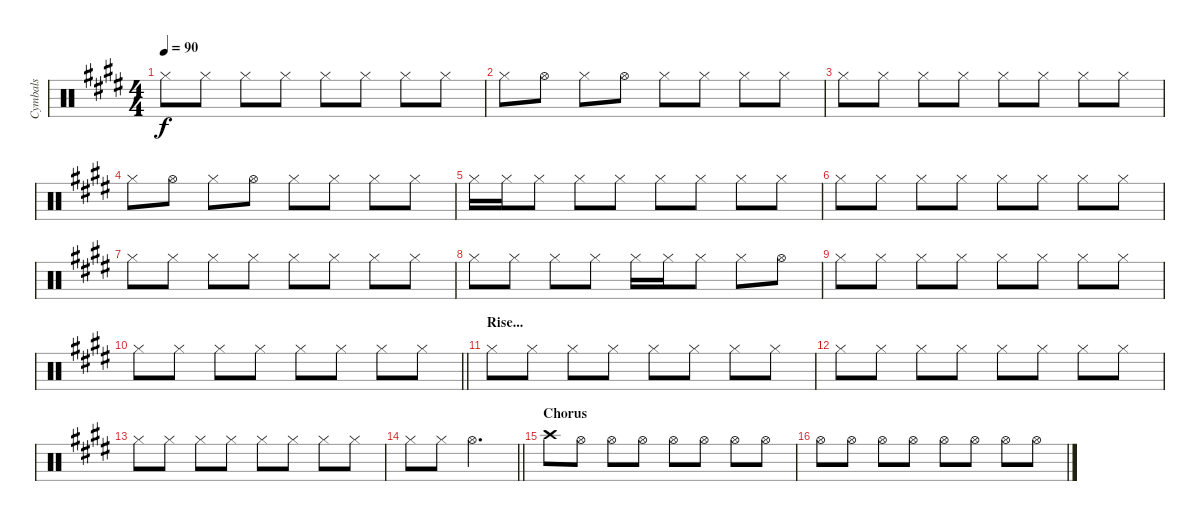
\track ("Cymbals" "Cymbals") {instrument percussion}
\staff {score}
\articulation defaults
\ts (4 4)
\tempo 90
\clef neutral
\ks e "Hi-Hat (closed)".8{dy f} "Hi-Hat (closed)".8 "Hi-Hat (closed)".8 "Hi-Hat (closed)".8 "Hi-Hat (closed)".8 "Hi-Hat (closed)".8 "Hi-Hat (closed)".8 "Hi-Hat (closed)".8
|
"Hi-Hat (closed)".8 "Hi-Hat (open)".8 "Hi-Hat (closed)".8 "Hi-Hat (open)".8 "Hi-Hat (closed)".8 "Hi-Hat (closed)".8 "Hi-Hat (closed)".8 "Hi-Hat (closed)".8 |
"Hi-Hat (closed)".8 "Hi-Hat (closed)".8 "Hi-Hat (closed)".8 "Hi-Hat (closed)".8 "Hi-Hat (closed)".8 "Hi-Hat (closed)".8 "Hi-Hat (closed)".8 "Hi-Hat (closed)".8 |
"Hi-Hat (closed)".8 "Hi-Hat (open)".8 "Hi-Hat (closed)".8 "Hi-Hat (open)".8 "Hi-Hat (closed)".8 "Hi-Hat (closed)".8 "Hi-Hat (closed)".8 "Hi-Hat (closed)".8 |
"Hi-Hat (closed)".16 "Hi-Hat (closed)".16 "Hi-Hat (closed)".8 "Hi-Hat (closed)".8 "Hi-Hat (closed)".8 "Hi-Hat (closed)".8 "Hi-Hat (closed)".8 "Hi-Hat (closed)".8 "Hi-Hat (closed)".8 |
"Hi-Hat (closed)".8 "Hi-Hat (closed)".8 "Hi-Hat (closed)".8 "Hi-Hat (closed)".8 "Hi-Hat (closed)".8 "Hi-Hat (closed)".8 "Hi-Hat (closed)".8 "Hi-Hat (closed)".8 |
"Hi-Hat (closed)".8 "Hi-Hat (closed)".8 "Hi-Hat (closed)".8 "Hi-Hat (closed)".8 "Hi-Hat (closed)".8 "Hi-Hat (closed)".8 "Hi-Hat (closed)".8 "Hi-Hat (closed)".8 |
"Hi-Hat (closed)".8 "Hi-Hat (closed)".8 "Hi-Hat (closed)".8 "Hi-Hat (closed)".8 "Hi-Hat (closed)".16 "Hi-Hat (closed)".16 "Hi-Hat (closed)".8 "Hi-Hat (closed)".8 "Hi-Hat (open)".8 |
"Hi-Hat (closed)".8 "Hi-Hat (closed)".8 "Hi-Hat (closed)".8 "Hi-Hat (closed)".8 "Hi-Hat (closed)".8 "Hi-Hat (closed)".8 "Hi-Hat (closed)".8 "Hi-Hat (closed)".8 |
\barLineRight lightlight "Hi-Hat (closed)".8 "Hi-Hat (closed)".8 "Hi-Hat (closed)".8 "Hi-Hat (closed)".8 "Hi-Hat (closed)".8 "Hi-Hat (closed)".8 "Hi-Hat (closed)".8 "Hi-Hat (closed)".8
|
\section ("" "Rise...")
"Hi-Hat (closed)".8 "Hi-Hat (closed)".8 "Hi-Hat (closed)".8 "Hi-Hat (closed)".8 "Hi-Hat (closed)".8 "Hi-Hat (closed)".8 "Hi-Hat (closed)".8 "Hi-Hat (closed)".8 |
"Hi-Hat (closed)".8 "Hi-Hat (closed)".8 "Hi-Hat (closed)".8 "Hi-Hat (closed)".8 "Hi-Hat (closed)".8 "Hi-Hat (closed)".8 "Hi-Hat (closed)".8 "Hi-Hat (closed)".8 |
"Hi-Hat (closed)".8 "Hi-Hat (closed)".8 "Hi-Hat (closed)".8 "Hi-Hat (closed)".8 "Hi-Hat (closed)".8 "Hi-Hat (closed)".8 "Hi-Hat (closed)".8 "Hi-Hat (closed)".8 |
\barLineRight lightlight "Hi-Hat (closed)".8 "Hi-Hat (closed)".8 "Hi-Hat (open)".2{d}
|
\section ("" "Chorus")
"Crash high (hit)".8 "Hi-Hat (open)".8 "Hi-Hat (open)".8 "Hi-Hat (open)".8 "Hi-Hat (open)".8 "Hi-Hat (open)".8 "Hi-Hat (open)".8 "Hi-Hat (open)".8 |
"Hi-Hat (open)".8 "Hi-Hat (open)".8 "Hi-Hat (open)".8 "Hi-Hat (open)".8 "Hi-Hat (open)".8 "Hi-Hat (open)".8 "Hi-Hat (open)".8 "Hi-Hat (open)".8
